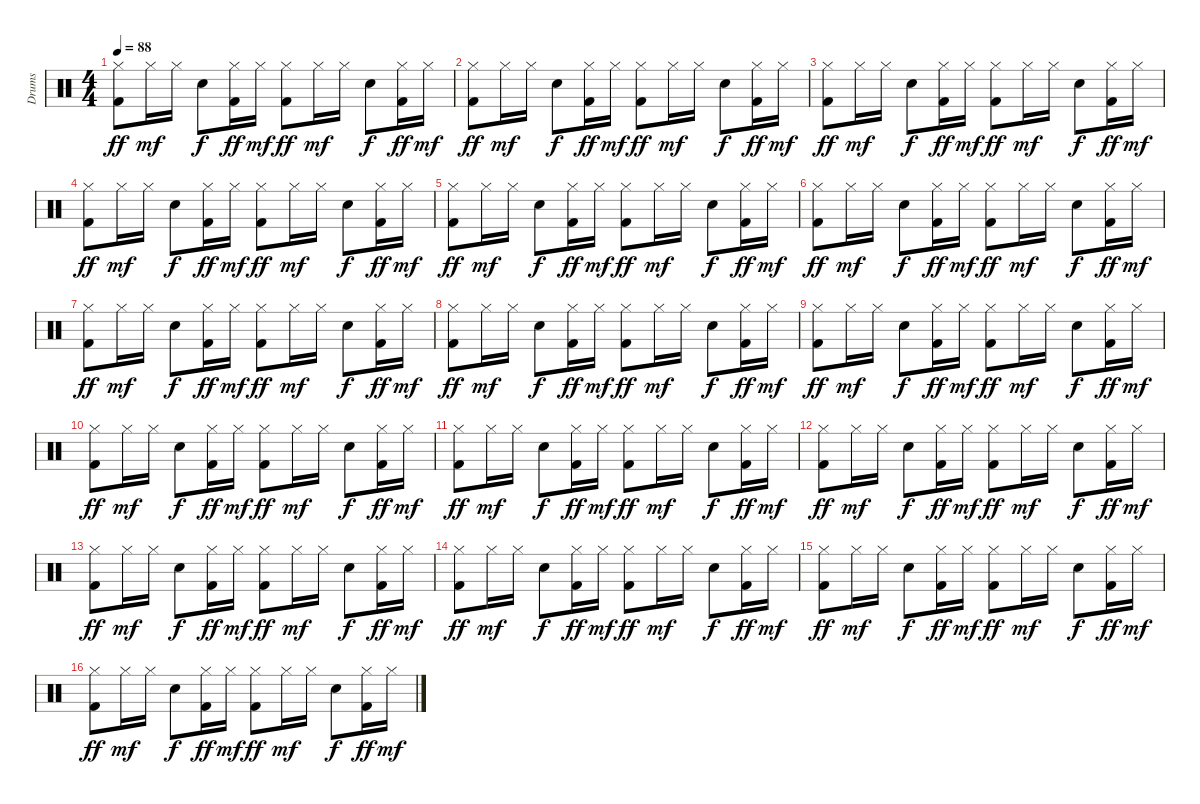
\track ("Drums" "Drums") {instrument percussion}
\staff {score}
\articulation defaults
\ts (4 4)
\tempo 88
\clef neutral
\ks c
("Hi-Hat (closed)" "Kick (hit) 2").8{dy ff} "Hi-Hat (closed)".16{dy mf} "Hi-Hat (closed)".16 "Snare (hit) 2".8{dy f} ("Hi-Hat (closed)" "Kick (hit) 2").16{dy ff} "Hi-Hat (closed)".16{dy mf} ("Hi-Hat (closed)" "Kick (hit) 2").8{dy ff} "Hi-Hat (closed)".16{dy mf} "Hi-Hat (closed)".16 "Snare (hit) 2".8{dy f} ("Hi-Hat (closed)" "Kick (hit) 2").16{dy ff} "Hi-Hat (closed)".16{dy mf} |
("Hi-Hat (closed)" "Kick (hit) 2").8{dy ff} "Hi-Hat (closed)".16{dy mf} "Hi-Hat (closed)".16 "Snare (hit) 2".8{dy f} ("Hi-Hat (closed)" "Kick (hit) 2").16{dy ff} "Hi-Hat (closed)".16{dy mf} ("Hi-Hat (closed)" "Kick (hit) 2").8{dy ff} "Hi-Hat (closed)".16{dy mf} "Hi-Hat (closed)".16 "Snare (hit) 2".8{dy f} ("Hi-Hat (closed)" "Kick (hit) 2").16{dy ff} "Hi-Hat (closed)".16{dy mf} |
("Hi-Hat (closed)" "Kick (hit) 2").8{dy ff} "Hi-Hat (closed)".16{dy mf} "Hi-Hat (closed)".16 "Snare (hit) 2".8{dy f} ("Hi-Hat (closed)" "Kick (hit) 2").16{dy ff} "Hi-Hat (closed)".16{dy mf} ("Hi-Hat (closed)" "Kick (hit) 2").8{dy ff} "Hi-Hat (closed)".16{dy mf} "Hi-Hat (closed)".16 "Snare (hit) 2".8{dy f} ("Hi-Hat (closed)" "Kick (hit) 2").16{dy ff} "Hi-Hat (closed)".16{dy mf} |
("Hi-Hat (closed)" "Kick (hit) 2").8{dy ff} "Hi-Hat (closed)".16{dy mf} "Hi-Hat (closed)".16 "Snare (hit) 2".8{dy f} ("Hi-Hat (closed)" "Kick (hit) 2").16{dy ff} "Hi-Hat (closed)".16{dy mf} ("Hi-Hat (closed)" "Kick (hit) 2").8{dy ff} "Hi-Hat (closed)".16{dy mf} "Hi-Hat (closed)".16 "Snare (hit) 2".8{dy f} ("Hi-Hat (closed)" "Kick (hit) 2").16{dy ff} "Hi-Hat (closed)".16{dy mf} |
("Hi-Hat (closed)" "Kick (hit) 2").8{dy ff} "Hi-Hat (closed)".16{dy mf} "Hi-Hat (closed)".16 "Snare (hit) 2".8{dy f} ("Hi-Hat (closed)" "Kick (hit) 2").16{dy ff} "Hi-Hat (closed)".16{dy mf} ("Hi-Hat (closed)" "Kick (hit) 2").8{dy ff} "Hi-Hat (closed)".16{dy mf} "Hi-Hat (closed)".16 "Snare (hit) 2".8{dy f} ("Hi-Hat (closed)" "Kick (hit) 2").16{dy ff} "Hi-Hat (closed)".16{dy mf} |
("Hi-Hat (closed)" "Kick (hit) 2").8{dy ff} "Hi-Hat (closed)".16{dy mf} "Hi-Hat (closed)".16 "Snare (hit) 2".8{dy f} ("Hi-Hat (closed)" "Kick (hit) 2").16{dy ff} "Hi-Hat (closed)".16{dy mf} ("Hi-Hat (closed)" "Kick (hit) 2").8{dy ff} "Hi-Hat (closed)".16{dy mf} "Hi-Hat (closed)".16 "Snare (hit) 2".8{dy f} ("Hi-Hat (closed)" "Kick (hit) 2").16{dy ff} "Hi-Hat (closed)".16{dy mf} |
("Hi-Hat (closed)" "Kick (hit) 2").8{dy ff} "Hi-Hat (closed)".16{dy mf} "Hi-Hat (closed)".16 "Snare (hit) 2".8{dy f} ("Hi-Hat (closed)" "Kick (hit) 2").16{dy ff} "Hi-Hat (closed)".16{dy mf} ("Hi-Hat (closed)" "Kick (hit) 2").8{dy ff} "Hi-Hat (closed)".16{dy mf} "Hi-Hat (closed)".16 "Snare (hit) 2".8{dy f} ("Hi-Hat (closed)" "Kick (hit) 2").16{dy ff} "Hi-Hat (closed)".16{dy mf} |
("Hi-Hat (closed)" "Kick (hit) 2").8{dy ff} "Hi-Hat (closed)".16{dy mf} "Hi-Hat (closed)".16 "Snare (hit) 2".8{dy f} ("Hi-Hat (closed)" "Kick (hit) 2").16{dy ff} "Hi-Hat (closed)".16{dy mf} ("Hi-Hat (closed)" "Kick (hit) 2").8{dy ff} "Hi-Hat (closed)".16{dy mf} "Hi-Hat (closed)".16 "Snare (hit) 2".8{dy f} ("Hi-Hat (closed)" "Kick (hit) 2").16{dy ff} "Hi-Hat (closed)".16{dy mf} |
("Hi-Hat (closed)" "Kick (hit) 2").8{dy ff} "Hi-Hat (closed)".16{dy mf} "Hi-Hat (closed)".16 "Snare (hit) 2".8{dy f} ("Hi-Hat (closed)" "Kick (hit) 2").16{dy ff} "Hi-Hat (closed)".16{dy mf} ("Hi-Hat (closed)" "Kick (hit) 2").8{dy ff} "Hi-Hat (closed)".16{dy mf} "Hi-Hat (closed)".16 "Snare (hit) 2".8{dy f} ("Hi-Hat (closed)" "Kick (hit) 2").16{dy ff} "Hi-Hat (closed)".16{dy mf} |
("Hi-Hat (closed)" "Kick (hit) 2").8{dy ff} "Hi-Hat (closed)".16{dy mf} "Hi-Hat (closed)".16 "Snare (hit) 2".8{dy f} ("Hi-Hat (closed)" "Kick (hit) 2").16{dy ff} "Hi-Hat (closed)".16{dy mf} ("Hi-Hat (closed)" "Kick (hit) 2").8{dy ff} "Hi-Hat (closed)".16{dy mf} "Hi-Hat (closed)".16 "Snare (hit) 2".8{dy f} ("Hi-Hat (closed)" "Kick (hit) 2").16{dy ff} "Hi-Hat (closed)".16{dy mf} |
("Hi-Hat (closed)" "Kick (hit) 2").8{dy ff} "Hi-Hat (closed)".16{dy mf} "Hi-Hat (closed)".16 "Snare (hit) 2".8{dy f} ("Hi-Hat (closed)" "Kick (hit) 2").16{dy ff} "Hi-Hat (closed)".16{dy mf} ("Hi-Hat (closed)" "Kick (hit) 2").8{dy ff} "Hi-Hat (closed)".16{dy mf} "Hi-Hat (closed)".16 "Snare (hit) 2".8{dy f} ("Hi-Hat (closed)" "Kick (hit) 2").16{dy ff} "Hi-Hat (closed)".16{dy mf} |
("Hi-Hat (closed)" "Kick (hit) 2").8{dy ff} "Hi-Hat (closed)".16{dy mf} "Hi-Hat (closed)".16 "Snare (hit) 2".8{dy f} ("Hi-Hat (closed)" "Kick (hit) 2").16{dy ff} "Hi-Hat (closed)".16{dy mf} ("Hi-Hat (closed)" "Kick (hit) 2").8{dy ff} "Hi-Hat (closed)".16{dy mf} "Hi-Hat (closed)".16 "Snare (hit) 2".8{dy f} ("Hi-Hat (closed)" "Kick (hit) 2").16{dy ff} "Hi-Hat (closed)".16{dy mf} |
("Hi-Hat (closed)" "Kick (hit) 2").8{dy ff} "Hi-Hat (closed)".16{dy mf} "Hi-Hat (closed)".16 "Snare (hit) 2".8{dy f} ("Hi-Hat (closed)" "Kick (hit) 2").16{dy ff} "Hi-Hat (closed)".16{dy mf} ("Hi-Hat (closed)" "Kick (hit) 2").8{dy ff} "Hi-Hat (closed)".16{dy mf} "Hi-Hat (closed)".16 "Snare (hit) 2".8{dy f} ("Hi-Hat (closed)" "Kick (hit) 2").16{dy ff} "Hi-Hat (closed)".16{dy mf} |
("Hi-Hat (closed)" "Kick (hit) 2").8{dy ff} "Hi-Hat (closed)".16{dy mf} "Hi-Hat (closed)".16 "Snare (hit) 2".8{dy f} ("Hi-Hat (closed)" "Kick (hit) 2").16{dy ff} "Hi-Hat (closed)".16{dy mf} ("Hi-Hat (closed)" "Kick (hit) 2").8{dy ff} "Hi-Hat (closed)".16{dy mf} "Hi-Hat (closed)".16 "Snare (hit) 2".8{dy f} ("Hi-Hat (closed)" "Kick (hit) 2").16{dy ff} "Hi-Hat (closed)".16{dy mf} |
("Hi-Hat (closed)" "Kick (hit) 2").8{dy ff} "Hi-Hat (closed)".16{dy mf} "Hi-Hat (closed)".16 "Snare (hit) 2".8{dy f} ("Hi-Hat (closed)" "Kick (hit) 2").16{dy ff} "Hi-Hat (closed)".16{dy mf} ("Hi-Hat (closed)" "Kick (hit) 2").8{dy ff} "Hi-Hat (closed)".16{dy mf} "Hi-Hat (closed)".16 "Snare (hit) 2".8{dy f} ("Hi-Hat (closed)" "Kick (hit) 2").16{dy ff} "Hi-Hat (closed)".16{dy mf} |
("Hi-Hat (closed)" "Kick (hit) 2").8{dy ff} "Hi-Hat (closed)".16{dy mf} "Hi-Hat (closed)".16 "Snare (hit) 2".8{dy f} ("Hi-Hat (closed)" "Kick (hit) 2").16{dy ff} "Hi-Hat (closed)".16{dy mf} ("Hi-Hat (closed)" "Kick (hit) 2").8{dy ff} "Hi-Hat (closed)".16{dy mf} "Hi-Hat (closed)".16 "Snare (hit) 2".8{dy f} ("Hi-Hat (closed)" "Kick (hit) 2").16{dy ff} "Hi-Hat (closed)".16{dy mf}
